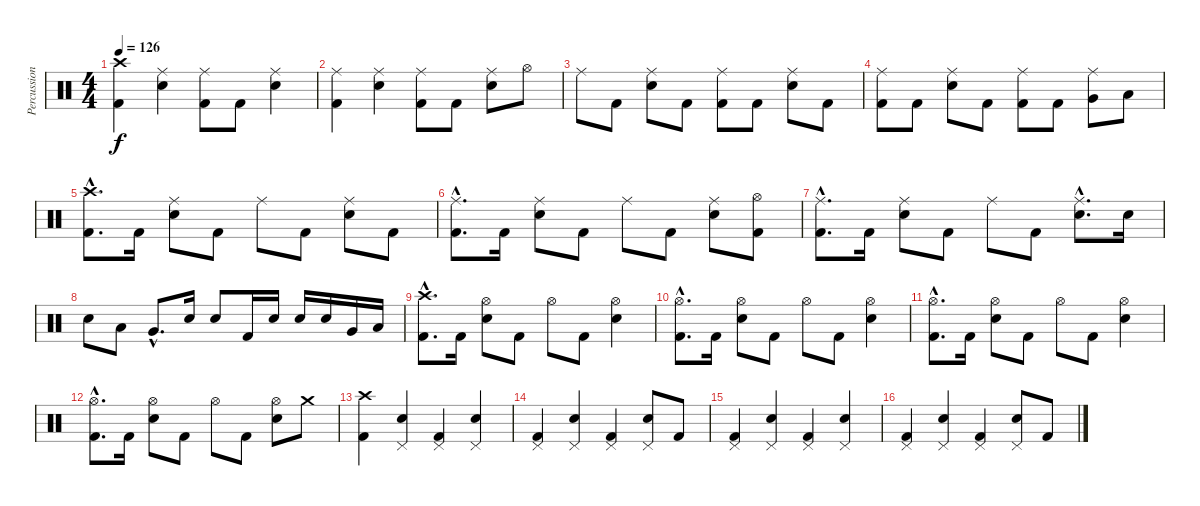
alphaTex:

\track ("Percussion" "Percussion") {instrument percussion}
\staff {score}
\articulation defaults
\ts (4 4)
\tempo 126
\clef neutral
\ks c
("Crash high (hit)" "Kick (hit) 2").4{dy f} ("Ride (middle)" "Snare (hit) 2").4 ("Ride (middle)" "Kick (hit) 2").8 "Kick (hit) 2".8 ("Ride (middle)" "Snare (hit) 2").4 |
("Ride (middle)" "Kick (hit) 2").4 ("Ride (middle)" "Snare (hit) 2").4 ("Ride (middle)" "Kick (hit) 2").8 "Kick (hit) 2".8 ("Ride (middle)" "Snare (hit) 2").8 "Hi-Hat (open)".8 |
"Ride (middle)".8 "Kick (hit) 2".8 ("Ride (middle)" "Snare (hit) 2").8 "Kick (hit) 2".8 ("Ride (middle)" "Kick (hit) 2").8 "Kick (hit) 2".8 ("Ride (middle)" "Snare (hit) 2").8 "Kick (hit) 2".8 |
("Ride (middle)" "Kick (hit) 2").8 "Kick (hit) 2".8 ("Ride (middle)" "Snare (hit) 2").8 "Kick (hit) 2".8 ("Ride (middle)" "Kick (hit) 2").8 "Kick (hit) 2".8 ("Ride (middle)" "Very Low Tom (hit)").8 "Low Floor Tom (hit)".8 |
("Crash high (hit)"{hac} "Kick (hit) 2"{hac}).8{d} "Kick (hit) 2".16 ("Ride (middle)" "Snare (hit) 2").8 "Kick (hit) 2".8 "Ride (middle)".8 "Kick (hit) 2".8 ("Ride (middle)" "Snare (hit) 2").8 "Kick (hit) 2".8 |
("Ride (middle)"{hac} "Kick (hit) 2"{hac}).8{d} "Kick (hit) 2".16 ("Ride (middle)" "Snare (hit) 2").8 "Kick (hit) 2".8 "Ride (middle)".8 "Kick (hit) 2".8 ("Ride (middle)" "Snare (hit) 2").8 ("Hi-Hat (open)" "Kick (hit) 2").8 |
("Ride (middle)"{hac} "Kick (hit) 2"{hac}).8{d} "Kick (hit) 2".16 ("Ride (middle)" "Snare (hit) 2").8 "Kick (hit) 2".8 "Ride (middle)".8 "Kick (hit) 2".8 ("Ride (middle)"{hac} "Snare (hit) 2"{hac}).8{d} "Snare (hit) 2".16 |
"Snare (hit) 2".8 "Low Tom (hit)".8 "Very Low Tom (hit)"{hac}.8{d} "Snare (hit) 2".16 "Snare (hit) 2".8 "Kick (hit) 2".16 "Snare (hit) 2".16 "Snare (hit) 2".16 "Snare (hit) 2".16 "Very Low Tom (hit)".16 "Low Floor Tom (hit)".16 |
("Crash high (hit)"{hac} "Kick (hit) 2"{hac}).8{d} "Kick (hit) 2".16 ("Hi-Hat (open)" "Snare (hit) 2").8 "Kick (hit) 2".8 "Hi-Hat (open)".8 "Kick (hit) 2".8 ("Hi-Hat (open)" "Snare (hit) 2").4 |
("Hi-Hat (open)"{hac} "Kick (hit) 2"{hac}).8{d} "Kick (hit) 2".16 ("Hi-Hat (open)" "Snare (hit) 2").8 "Kick (hit) 2".8 "Hi-Hat (open)".8 "Kick (hit) 2".8 ("Hi-Hat (open)" "Snare (hit) 2").4 |
("Hi-Hat (open)"{hac} "Kick (hit) 2"{hac}).8{d} "Kick (hit) 2".16 ("Hi-Hat (open)" "Snare (hit) 2").8 "Kick (hit) 2".8 "Hi-Hat (open)".8 "Kick (hit) 2".8 ("Hi-Hat (open)" "Snare (hit) 2").4 |
("Hi-Hat (open)"{hac} "Kick (hit) 2"{hac}).8{d} "Kick (hit) 2".16 ("Hi-Hat (open)" "Snare (hit) 2").8 "Kick (hit) 2".8 "Hi-Hat (open)".8 "Kick (hit) 2".8 ("Hi-Hat (open)" "Snare (hit) 2").8 "Crash medium (hit)".8 |
("Crash high (hit)" "Kick (hit) 2").4 ("Pedal Hi-Hat (hit)" "Snare (hit) 2").4 ("Pedal Hi-Hat (hit)" "Kick (hit) 2").4 ("Pedal Hi-Hat (hit)" "Snare (hit) 2").4 |
("Pedal Hi-Hat (hit)" "Kick (hit) 2").4 ("Pedal Hi-Hat (hit)" "Snare (hit) 2").4 ("Pedal Hi-Hat (hit)" "Kick (hit) 2").4 ("Pedal Hi-Hat (hit)" "Snare (hit) 2").8 "Kick (hit) 2".8 |
("Pedal Hi-Hat (hit)" "Kick (hit) 2").4 ("Pedal Hi-Hat (hit)" "Snare (hit) 2").4 ("Pedal Hi-Hat (hit)" "Kick (hit) 2").4 ("Pedal Hi-Hat (hit)" "Snare (hit) 2").4 |
("Pedal Hi-Hat (hit)" "Kick (hit) 2").4 ("Pedal Hi-Hat (hit)" "Snare (hit) 2").4 ("Pedal Hi-Hat (hit)" "Kick (hit) 2").4 ("Pedal Hi-Hat (hit)" "Snare (hit) 2").8 "Kick (hit) 2".8
